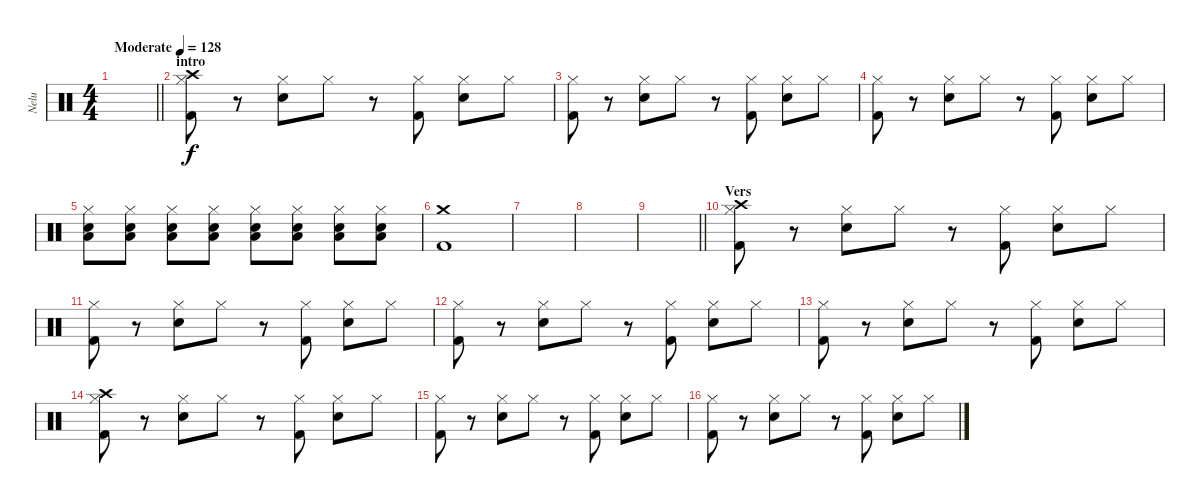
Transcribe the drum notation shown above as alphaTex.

\track ("Nelu" "Nelu") {instrument percussion}
\staff {score}
\articulation defaults
\ts (4 4)
\tempo (128 "Moderate")
\clef neutral
\barLineRight lightlight
\ks c
|
\section ("" "intro")
("Kick (hit) 2" "Crash high (hit)" "Hi-Hat (closed)").8 r.8 ("Electric Snare (hit)" "Hi-Hat (closed)").8 "Hi-Hat (closed)".8 r.8 ("Hi-Hat (closed)" "Kick (hit) 2").8 ("Hi-Hat (closed)" "Electric Snare (hit)").8 "Hi-Hat (closed)".8 |
("Kick (hit) 2" "Hi-Hat (closed)").8 r.8 ("Electric Snare (hit)" "Hi-Hat (closed)").8 "Hi-Hat (closed)".8 r.8 ("Hi-Hat (closed)" "Kick (hit) 2").8 ("Hi-Hat (closed)" "Electric Snare (hit)").8 "Hi-Hat (closed)".8 |
("Kick (hit) 2" "Hi-Hat (closed)").8 r.8 ("Electric Snare (hit)" "Hi-Hat (closed)").8 "Hi-Hat (closed)".8 r.8 ("Hi-Hat (closed)" "Kick (hit) 2").8 ("Hi-Hat (closed)" "Electric Snare (hit)").8 "Hi-Hat (closed)".8 |
("Electric Snare (hit)" "Low Floor Tom (hit)" "Hi-Hat (closed)").8 ("Electric Snare (hit)" "Low Floor Tom (hit)" "Hi-Hat (closed)").8 ("Electric Snare (hit)" "Low Floor Tom (hit)" "Hi-Hat (closed)").8 ("Electric Snare (hit)" "Low Floor Tom (hit)" "Hi-Hat (closed)").8 ("Electric Snare (hit)" "Low Floor Tom (hit)" "Hi-Hat (closed)").8 ("Electric Snare (hit)" "Low Floor Tom (hit)" "Hi-Hat (closed)").8 ("Electric Snare (hit)" "Low Floor Tom (hit)" "Hi-Hat (closed)").8 ("Electric Snare (hit)" "Low Floor Tom (hit)" "Hi-Hat (closed)").8 |
("Kick (hit) 2" "Crash medium (hit)").1 |
|
|
\barLineRight lightlight
|
\section ("" "Vers")
("Kick (hit) 2" "Crash high (hit)" "Hi-Hat (closed)").8 r.8 ("Electric Snare (hit)" "Hi-Hat (closed)").8 "Hi-Hat (closed)".8 r.8 ("Hi-Hat (closed)" "Kick (hit) 2").8 ("Hi-Hat (closed)" "Electric Snare (hit)").8 "Hi-Hat (closed)".8 |
("Kick (hit) 2" "Hi-Hat (closed)").8 r.8 ("Electric Snare (hit)" "Hi-Hat (closed)").8 "Hi-Hat (closed)".8 r.8 ("Hi-Hat (closed)" "Kick (hit) 2").8 ("Hi-Hat (closed)" "Electric Snare (hit)").8 "Hi-Hat (closed)".8 |
("Kick (hit) 2" "Hi-Hat (closed)").8 r.8 ("Electric Snare (hit)" "Hi-Hat (closed)").8 "Hi-Hat (closed)".8 r.8 ("Hi-Hat (closed)" "Kick (hit) 2").8 ("Hi-Hat (closed)" "Electric Snare (hit)").8 "Hi-Hat (closed)".8 |
("Kick (hit) 2" "Hi-Hat (closed)").8 r.8 ("Electric Snare (hit)" "Hi-Hat (closed)").8 "Hi-Hat (closed)".8 r.8 ("Hi-Hat (closed)" "Kick (hit) 2").8 ("Hi-Hat (closed)" "Electric Snare (hit)").8 "Hi-Hat (closed)".8 |
("Kick (hit) 2" "Crash high (hit)" "Hi-Hat (closed)").8 r.8 ("Electric Snare (hit)" "Hi-Hat (closed)").8 "Hi-Hat (closed)".8 r.8 ("Hi-Hat (closed)" "Kick (hit) 2").8 ("Hi-Hat (closed)" "Electric Snare (hit)").8 "Hi-Hat (closed)".8 |
("Kick (hit) 2" "Hi-Hat (closed)").8 r.8 ("Electric Snare (hit)" "Hi-Hat (closed)").8 "Hi-Hat (closed)".8 r.8 ("Hi-Hat (closed)" "Kick (hit) 2").8 ("Hi-Hat (closed)" "Electric Snare (hit)").8 "Hi-Hat (closed)".8 |
("Kick (hit) 2" "Hi-Hat (closed)").8 r.8 ("Electric Snare (hit)" "Hi-Hat (closed)").8 "Hi-Hat (closed)".8 r.8 ("Hi-Hat (closed)" "Kick (hit) 2").8 ("Hi-Hat (closed)" "Electric Snare (hit)").8 "Hi-Hat (closed)".8
